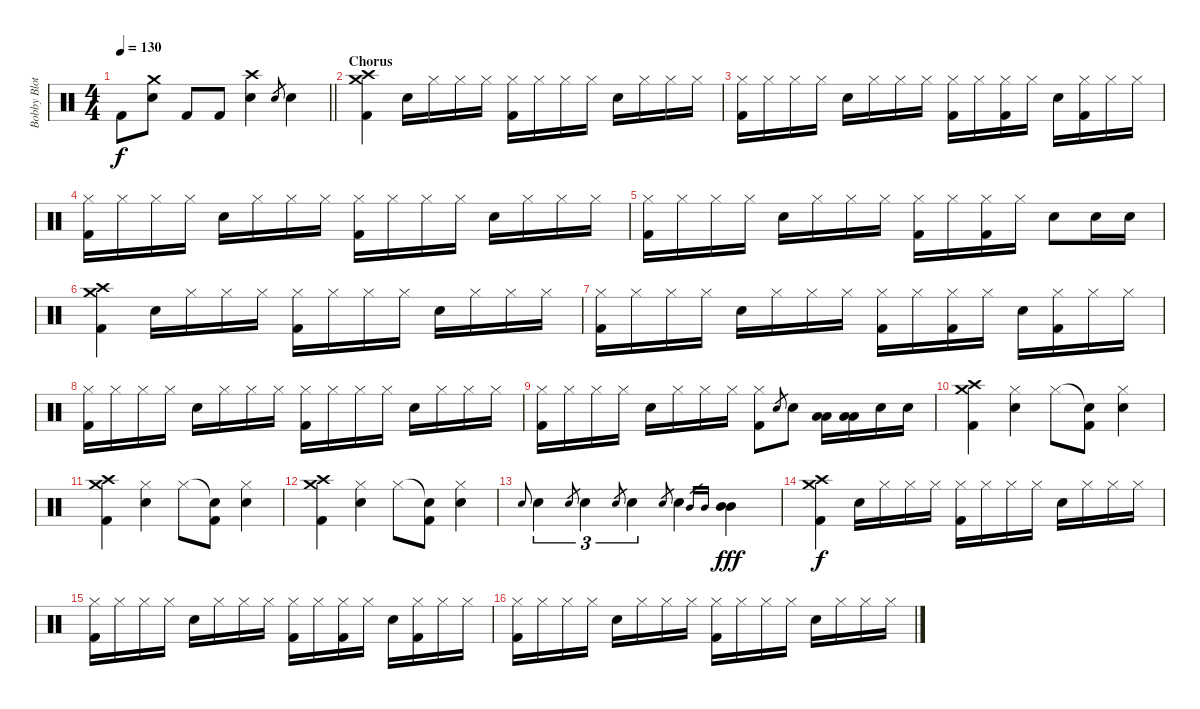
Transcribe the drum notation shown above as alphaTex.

\track ("Bobby Blotzer - Drums" "Bobby Blot") {instrument percussion}
\staff {score}
\articulation defaults
\ts (4 4)
\tempo 130
\clef neutral
\barLineRight lightlight
\ks c "Kick (hit) 2".8{dy f}
("Crash medium (hit)" "Snare (hit) 2").8 "Kick (hit) 2".8 "Kick (hit) 2".8 ("Crash high (hit)" "Snare (hit) 2").4 "Snare (hit) 2".8{gr} "Snare (hit) 2".4 |
\section ("" "Chorus")
("Crash medium (hit)" "Crash high (hit)" "Kick (hit) 2").4 "Snare (hit) 2".16 "Hi-Hat (closed)".16 "Hi-Hat (closed)".16 "Hi-Hat (closed)".16 ("Hi-Hat (closed)" "Kick (hit) 2").16 "Hi-Hat (closed)".16 "Hi-Hat (closed)".16 "Hi-Hat (closed)".16 "Snare (hit) 2".16 "Hi-Hat (closed)".16 "Hi-Hat (closed)".16 "Hi-Hat (closed)".16 |
("Hi-Hat (closed)" "Kick (hit) 2").16 "Hi-Hat (closed)".16 "Hi-Hat (closed)".16 "Hi-Hat (closed)".16 "Snare (hit) 2".16 "Hi-Hat (closed)".16 "Hi-Hat (closed)".16 "Hi-Hat (closed)".16 ("Hi-Hat (closed)" "Kick (hit) 2").16 "Hi-Hat (closed)".16 ("Hi-Hat (closed)" "Kick (hit) 2").16 "Hi-Hat (closed)".16 "Snare (hit) 2".16 ("Hi-Hat (closed)" "Kick (hit) 2").16 "Hi-Hat (closed)".16 "Hi-Hat (closed)".16 |
("Hi-Hat (closed)" "Kick (hit) 2").16 "Hi-Hat (closed)".16 "Hi-Hat (closed)".16 "Hi-Hat (closed)".16 "Snare (hit) 2".16 "Hi-Hat (closed)".16 "Hi-Hat (closed)".16 "Hi-Hat (closed)".16 ("Hi-Hat (closed)" "Kick (hit) 2").16 "Hi-Hat (closed)".16 "Hi-Hat (closed)".16 "Hi-Hat (closed)".16 "Snare (hit) 2".16 "Hi-Hat (closed)".16 "Hi-Hat (closed)".16 "Hi-Hat (closed)".16 |
("Hi-Hat (closed)" "Kick (hit) 2").16 "Hi-Hat (closed)".16 "Hi-Hat (closed)".16 "Hi-Hat (closed)".16 "Snare (hit) 2".16 "Hi-Hat (closed)".16 "Hi-Hat (closed)".16 "Hi-Hat (closed)".16 ("Hi-Hat (closed)" "Kick (hit) 2").16 "Hi-Hat (closed)".16 ("Hi-Hat (closed)" "Kick (hit) 2").16 "Hi-Hat (closed)".16 "Snare (hit) 2".8 "Snare (hit) 2".16 "Snare (hit) 2".16 |
("Crash medium (hit)" "Crash high (hit)" "Kick (hit) 2").4 "Snare (hit) 2".16 "Hi-Hat (closed)".16 "Hi-Hat (closed)".16 "Hi-Hat (closed)".16 ("Hi-Hat (closed)" "Kick (hit) 2").16 "Hi-Hat (closed)".16 "Hi-Hat (closed)".16 "Hi-Hat (closed)".16 "Snare (hit) 2".16 "Hi-Hat (closed)".16 "Hi-Hat (closed)".16 "Hi-Hat (closed)".16 |
("Hi-Hat (closed)" "Kick (hit) 2").16 "Hi-Hat (closed)".16 "Hi-Hat (closed)".16 "Hi-Hat (closed)".16 "Snare (hit) 2".16 "Hi-Hat (closed)".16 "Hi-Hat (closed)".16 "Hi-Hat (closed)".16 ("Hi-Hat (closed)" "Kick (hit) 2").16 "Hi-Hat (closed)".16 ("Hi-Hat (closed)" "Kick (hit) 2").16 "Hi-Hat (closed)".16 "Snare (hit) 2".16 ("Hi-Hat (closed)" "Kick (hit) 2").16 "Hi-Hat (closed)".16 "Hi-Hat (closed)".16 |
("Hi-Hat (closed)" "Kick (hit) 2").16 "Hi-Hat (closed)".16 "Hi-Hat (closed)".16 "Hi-Hat (closed)".16 "Snare (hit) 2".16 "Hi-Hat (closed)".16 "Hi-Hat (closed)".16 "Hi-Hat (closed)".16 ("Hi-Hat (closed)" "Kick (hit) 2").16 "Hi-Hat (closed)".16 "Hi-Hat (closed)".16 "Hi-Hat (closed)".16 "Snare (hit) 2".16 "Hi-Hat (closed)".16 "Hi-Hat (closed)".16 "Hi-Hat (closed)".16 |
("Hi-Hat (closed)" "Kick (hit) 2").16 "Hi-Hat (closed)".16 "Hi-Hat (closed)".16 "Hi-Hat (closed)".16 "Snare (hit) 2".16 "Hi-Hat (closed)".16 "Hi-Hat (closed)".16 "Hi-Hat (closed)".16 ("Hi-Hat (closed)" "Kick (hit) 2").8 "Snare (hit) 2".8{gr} "Snare (hit) 2".8 ("Low Tom (hit)" "Low Tom (hit)").16 ("Low Tom (hit)" "Low Tom (hit)").16 "Snare (hit) 2".16 "Snare (hit) 2".16 |
("Crash medium (hit)" "Crash high (hit)" "Kick (hit) 2").4 ("Hi-Hat (closed)" "Snare (hit) 2").4 "Hi-Hat (closed)".8 ("Snare (hit)"{t} "Kick (hit) 2").8 ("Hi-Hat (closed)" "Snare (hit) 2").4 |
("Crash medium (hit)" "Crash high (hit)" "Kick (hit) 2").4 ("Hi-Hat (closed)" "Snare (hit) 2").4 "Hi-Hat (closed)".8 ("Snare (hit)"{t} "Kick (hit) 2").8 ("Hi-Hat (closed)" "Snare (hit) 2").4 |
("Crash medium (hit)" "Crash high (hit)" "Kick (hit) 2").4 ("Hi-Hat (closed)" "Snare (hit) 2").4 "Hi-Hat (closed)".8 ("Snare (hit)"{t} "Kick (hit) 2").8 ("Hi-Hat (closed)" "Snare (hit) 2").4 |
"Snare (hit) 2".8{gr onbeat} "Snare (hit) 2".4{tu (3 2)} "Snare (hit) 2".8{gr} "Snare (hit) 2".4{tu (3 2)} "Snare (hit) 2".8{gr} "Snare (hit) 2".4{tu (3 2)} "Snare (hit) 2".8{gr} "Snare (hit) 2".4 "Mid Tom (hit)".16{gr} "Mid Tom (hit)".16{gr} ("Mid Tom (hit)" "Mid Tom (hit)").4{dy fff} |
("Crash medium (hit)" "Crash high (hit)" "Kick (hit) 2").4{dy f} "Snare (hit) 2".16 "Hi-Hat (closed)".16 "Hi-Hat (closed)".16 "Hi-Hat (closed)".16 ("Hi-Hat (closed)" "Kick (hit) 2").16 "Hi-Hat (closed)".16 "Hi-Hat (closed)".16 "Hi-Hat (closed)".16 "Snare (hit) 2".16 "Hi-Hat (closed)".16 "Hi-Hat (closed)".16 "Hi-Hat (closed)".16 |
("Hi-Hat (closed)" "Kick (hit) 2").16 "Hi-Hat (closed)".16 "Hi-Hat (closed)".16 "Hi-Hat (closed)".16 "Snare (hit) 2".16 "Hi-Hat (closed)".16 "Hi-Hat (closed)".16 "Hi-Hat (closed)".16 ("Hi-Hat (closed)" "Kick (hit) 2").16 "Hi-Hat (closed)".16 ("Hi-Hat (closed)" "Kick (hit) 2").16 "Hi-Hat (closed)".16 "Snare (hit) 2".16 ("Hi-Hat (closed)" "Kick (hit) 2").16 "Hi-Hat (closed)".16 "Hi-Hat (closed)".16 |
("Hi-Hat (closed)" "Kick (hit) 2").16 "Hi-Hat (closed)".16 "Hi-Hat (closed)".16 "Hi-Hat (closed)".16 "Snare (hit) 2".16 "Hi-Hat (closed)".16 "Hi-Hat (closed)".16 "Hi-Hat (closed)".16 ("Hi-Hat (closed)" "Kick (hit) 2").16 "Hi-Hat (closed)".16 "Hi-Hat (closed)".16 "Hi-Hat (closed)".16 "Snare (hit) 2".16 "Hi-Hat (closed)".16 "Hi-Hat (closed)".16 "Hi-Hat (closed)".16
